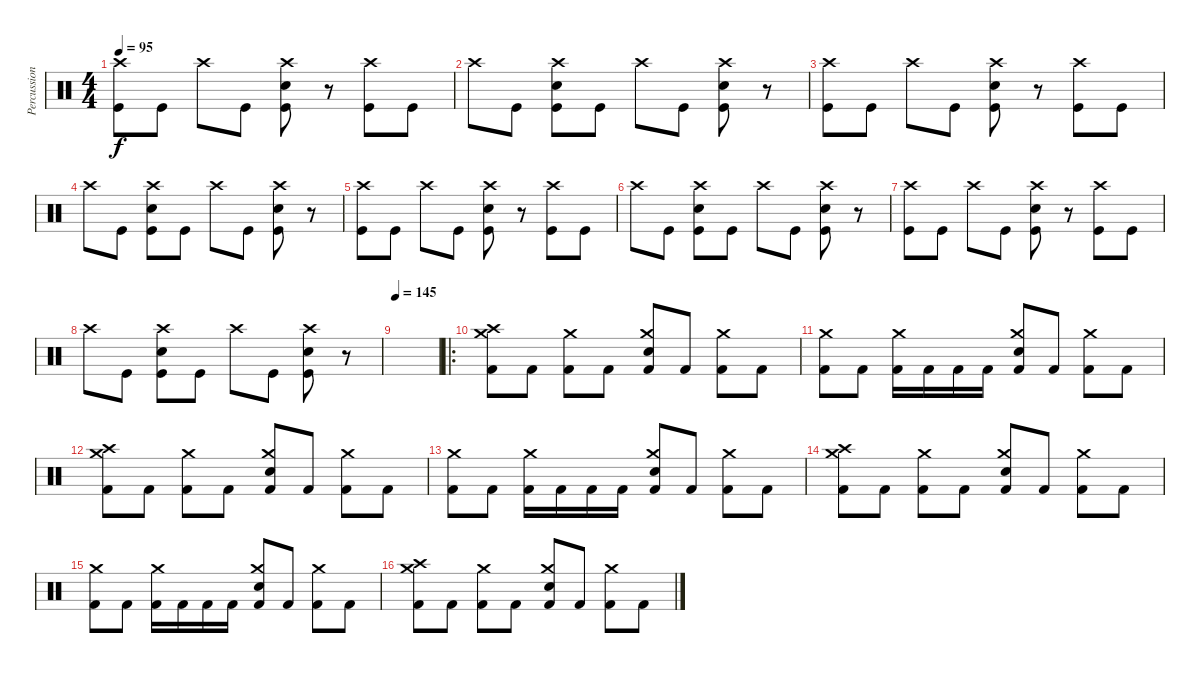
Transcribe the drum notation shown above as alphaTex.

\track ("Percussion" "Percussion") {instrument percussion}
\staff {score}
\articulation defaults
\ts (4 4)
\tempo 95
\clef neutral
\ks c
("Crash high (hit)" "Kick (hit)").8{dy f} "Kick (hit)".8 "Crash high (hit)".8 "Kick (hit)".8 ("Crash high (hit)" "Kick (hit)" "Electric Snare (hit)").8 r.8 ("Crash high (hit)" "Kick (hit)").8 "Kick (hit)".8 |
"Crash high (hit)".8 "Kick (hit)".8 ("Crash high (hit)" "Kick (hit)" "Electric Snare (hit)").8 "Kick (hit)".8 "Crash high (hit)".8 "Kick (hit)".8 ("Crash high (hit)" "Kick (hit)" "Electric Snare (hit)").8 r.8 |
("Crash high (hit)" "Kick (hit)").8 "Kick (hit)".8 "Crash high (hit)".8 "Kick (hit)".8 ("Crash high (hit)" "Kick (hit)" "Electric Snare (hit)").8 r.8 ("Crash high (hit)" "Kick (hit)").8 "Kick (hit)".8 |
"Crash high (hit)".8 "Kick (hit)".8 ("Crash high (hit)" "Kick (hit)" "Electric Snare (hit)").8 "Kick (hit)".8 "Crash high (hit)".8 "Kick (hit)".8 ("Crash high (hit)" "Kick (hit)" "Electric Snare (hit)").8 r.8 |
("Crash high (hit)" "Kick (hit)").8 "Kick (hit)".8 "Crash high (hit)".8 "Kick (hit)".8 ("Crash high (hit)" "Kick (hit)" "Electric Snare (hit)").8 r.8 ("Crash high (hit)" "Kick (hit)").8 "Kick (hit)".8 |
"Crash high (hit)".8 "Kick (hit)".8 ("Crash high (hit)" "Kick (hit)" "Electric Snare (hit)").8 "Kick (hit)".8 "Crash high (hit)".8 "Kick (hit)".8 ("Crash high (hit)" "Kick (hit)" "Electric Snare (hit)").8 r.8 |
("Crash high (hit)" "Kick (hit)").8 "Kick (hit)".8 "Crash high (hit)".8 "Kick (hit)".8 ("Crash high (hit)" "Kick (hit)" "Electric Snare (hit)").8 r.8 ("Crash high (hit)" "Kick (hit)").8 "Kick (hit)".8 |
"Crash high (hit)".8 "Kick (hit)".8 ("Crash high (hit)" "Kick (hit)" "Electric Snare (hit)").8 "Kick (hit)".8 "Crash high (hit)".8 "Kick (hit)".8 ("Crash high (hit)" "Kick (hit)" "Electric Snare (hit)").8 r.8 |
\tempo 145
|
\ro
("Crash high (hit)" "Crash medium (hit)" "Kick (hit) 2").8 "Kick (hit) 2".8 ("Crash medium (hit)" "Kick (hit) 2").8 "Kick (hit) 2".8 ("Crash medium (hit)" "Electric Snare (hit)" "Kick (hit) 2").8 "Kick (hit) 2".8 ("Crash medium (hit)" "Kick (hit) 2").8 "Kick (hit) 2".8 |
("Crash medium (hit)" "Kick (hit) 2").8 "Kick (hit) 2".8 ("Crash medium (hit)" "Kick (hit) 2").16 "Kick (hit) 2".16 "Kick (hit) 2".16 "Kick (hit) 2".16 ("Crash medium (hit)" "Electric Snare (hit)" "Kick (hit) 2").8 "Kick (hit) 2".8 ("Crash medium (hit)" "Kick (hit) 2").8 "Kick (hit) 2".8 |
("Crash high (hit)" "Crash medium (hit)" "Kick (hit) 2").8 "Kick (hit) 2".8 ("Crash medium (hit)" "Kick (hit) 2").8 "Kick (hit) 2".8 ("Crash medium (hit)" "Electric Snare (hit)" "Kick (hit) 2").8 "Kick (hit) 2".8 ("Crash medium (hit)" "Kick (hit) 2").8 "Kick (hit) 2".8 |
("Crash medium (hit)" "Kick (hit) 2").8 "Kick (hit) 2".8 ("Crash medium (hit)" "Kick (hit) 2").16 "Kick (hit) 2".16 "Kick (hit) 2".16 "Kick (hit) 2".16 ("Crash medium (hit)" "Electric Snare (hit)" "Kick (hit) 2").8 "Kick (hit) 2".8 ("Crash medium (hit)" "Kick (hit) 2").8 "Kick (hit) 2".8 |
("Crash high (hit)" "Crash medium (hit)" "Kick (hit) 2").8 "Kick (hit) 2".8 ("Crash medium (hit)" "Kick (hit) 2").8 "Kick (hit) 2".8 ("Crash medium (hit)" "Electric Snare (hit)" "Kick (hit) 2").8 "Kick (hit) 2".8 ("Crash medium (hit)" "Kick (hit) 2").8 "Kick (hit) 2".8 |
("Crash medium (hit)" "Kick (hit) 2").8 "Kick (hit) 2".8 ("Crash medium (hit)" "Kick (hit) 2").16 "Kick (hit) 2".16 "Kick (hit) 2".16 "Kick (hit) 2".16 ("Crash medium (hit)" "Electric Snare (hit)" "Kick (hit) 2").8 "Kick (hit) 2".8 ("Crash medium (hit)" "Kick (hit) 2").8 "Kick (hit) 2".8 |
("Crash high (hit)" "Crash medium (hit)" "Kick (hit) 2").8 "Kick (hit) 2".8 ("Crash medium (hit)" "Kick (hit) 2").8 "Kick (hit) 2".8 ("Crash medium (hit)" "Electric Snare (hit)" "Kick (hit) 2").8 "Kick (hit) 2".8 ("Crash medium (hit)" "Kick (hit) 2").8 "Kick (hit) 2".8
